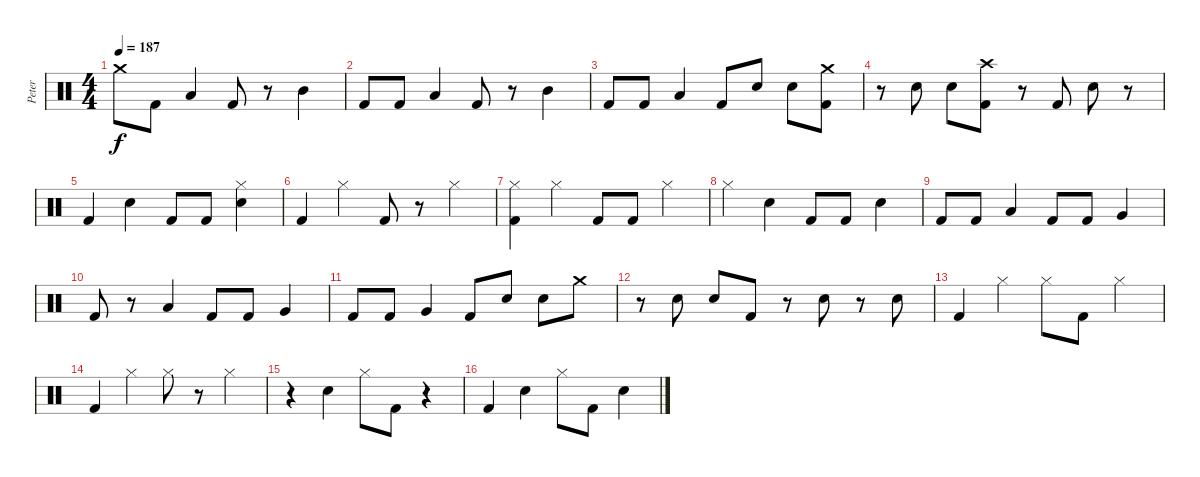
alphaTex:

\track ("Peter" "Peter") {instrument percussion}
\staff {score}
\articulation defaults
\ts (4 4)
\tempo 187
\clef neutral
\ks c "Crash medium (hit)".8{dy f} "Kick (hit) 2".8 "Low Floor Tom (hit)".4 "Kick (hit) 2".8
r.8 "Mid Tom (hit)".4 |
"Kick (hit) 2".8 "Kick (hit) 2".8 "Low Floor Tom (hit)".4 "Kick (hit) 2".8 r.8 "Mid Tom (hit)".4 |
"Kick (hit) 2".8 "Kick (hit) 2".8 "Low Floor Tom (hit)".4 "Kick (hit) 2".8 "Electric Snare (hit)".8 "Electric Snare (hit)".8 ("Crash medium (hit)" "Kick (hit) 2").8 |
r.8 "Electric Snare (hit)".8 "Electric Snare (hit)".8 ("Crash high (hit)" "Kick (hit) 2").8 r.8 "Kick (hit) 2".8 "Electric Snare (hit)".8 r.8 |
"Kick (hit) 2".4 "Electric Snare (hit)".4 "Kick (hit) 2".8 "Kick (hit) 2".8 ("Hi-Hat (closed)" "Electric Snare (hit)").4 |
"Kick (hit) 2".4 "Hi-Hat (closed)".4 "Kick (hit) 2".8 r.8 "Hi-Hat (closed)".4 |
("Hi-Hat (closed)" "Kick (hit) 2").4 "Hi-Hat (closed)".4 "Kick (hit) 2".8 "Kick (hit) 2".8 "Hi-Hat (closed)".4 |
"Hi-Hat (closed)".4 "Electric Snare (hit)".4 "Kick (hit) 2".8 "Kick (hit) 2".8 "Electric Snare (hit)".4 |
"Kick (hit) 2".8 "Kick (hit) 2".8 "Low Tom (hit)".4 "Kick (hit) 2".8 "Kick (hit) 2".8 "Very Low Tom (hit)".4 |
"Kick (hit) 2".8 r.8 "Low Tom (hit)".4 "Kick (hit) 2".8 "Kick (hit) 2".8 "Very Low Tom (hit)".4 |
"Kick (hit) 2".8 "Kick (hit) 2".8 "Very Low Tom (hit)".4 "Kick (hit) 2".8 "Electric Snare (hit)".8 "Electric Snare (hit)".8 "Crash medium (hit)".8 |
r.8 "Electric Snare (hit)".8 "Electric Snare (hit)".8 "Kick (hit) 2".8 r.8 "Electric Snare (hit)".8 r.8 "Electric Snare (hit)".8 |
"Kick (hit) 2".4 "Hi-Hat (closed)".4 "Hi-Hat (closed)".8 "Kick (hit) 2".8 "Hi-Hat (closed)".4 |
"Kick (hit) 2".4 "Hi-Hat (closed)".4 "Hi-Hat (closed)".8 r.8 "Hi-Hat (closed)".4 |
r.4 "Electric Snare (hit)".4 "Hi-Hat (closed)".8 "Kick (hit) 2".8 r.4 |
"Kick (hit) 2".4 "Electric Snare (hit)".4 "Hi-Hat (closed)".8 "Kick (hit) 2".8 "Electric Snare (hit)".4
